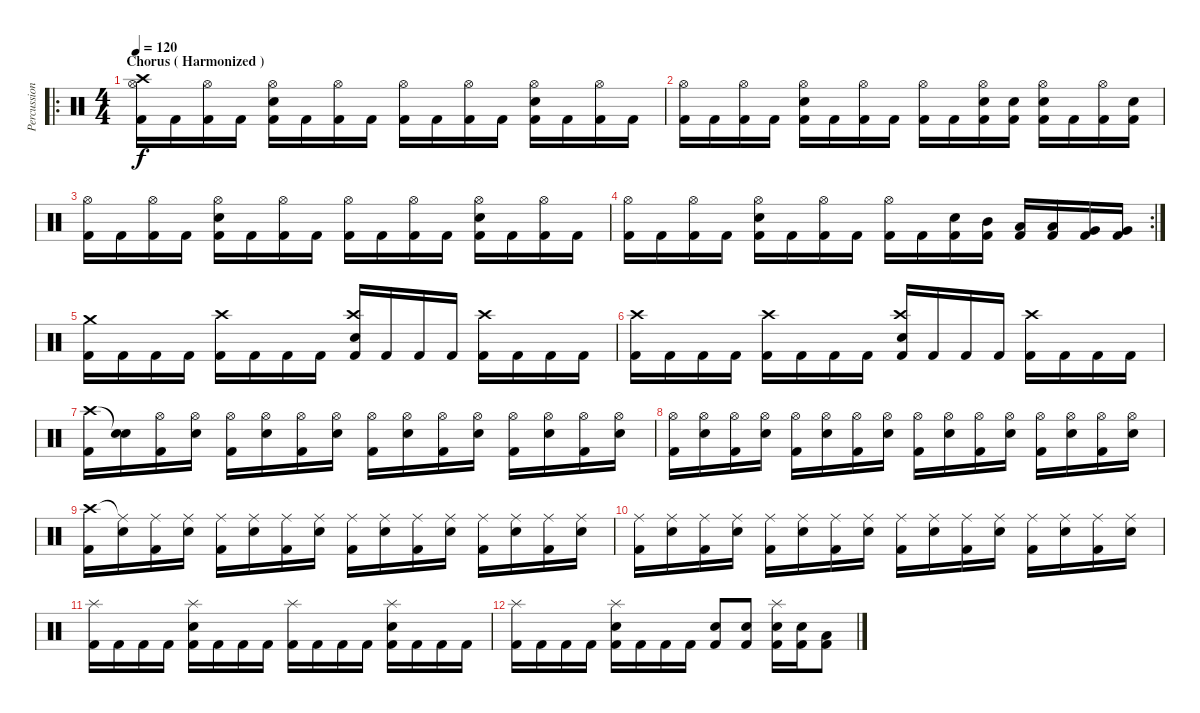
\track ("Percussions" "Percussion") {instrument percussion}
\staff {score}
\articulation defaults
\ro
\ts (4 4)
\section ("" "Chorus ( Harmonized )")
\tempo 120
\clef neutral
\ks c
("Kick (hit) 2" "Hi-Hat (open)" "Crash high (hit)").16{dy f} "Kick (hit) 2".16 ("Kick (hit) 2" "Hi-Hat (open)").16 "Kick (hit) 2".16 ("Kick (hit) 2" "Electric Snare (hit)" "Hi-Hat (open)").16 "Kick (hit) 2".16 ("Kick (hit) 2" "Hi-Hat (open)").16 "Kick (hit) 2".16 ("Kick (hit) 2" "Hi-Hat (open)").16 "Kick (hit) 2".16 ("Kick (hit) 2" "Hi-Hat (open)").16 "Kick (hit) 2".16 ("Kick (hit) 2" "Electric Snare (hit)" "Hi-Hat (open)").16 "Kick (hit) 2".16 ("Kick (hit) 2" "Hi-Hat (open)").16 "Kick (hit) 2".16 |
("Kick (hit) 2" "Hi-Hat (open)").16 "Kick (hit) 2".16 ("Kick (hit) 2" "Hi-Hat (open)").16 "Kick (hit) 2".16 ("Kick (hit) 2" "Electric Snare (hit)" "Hi-Hat (open)").16 "Kick (hit) 2".16 ("Kick (hit) 2" "Hi-Hat (open)").16 "Kick (hit) 2".16 ("Kick (hit) 2" "Hi-Hat (open)").16 "Kick (hit) 2".16 ("Kick (hit) 2" "Electric Snare (hit)" "Hi-Hat (open)").16 ("Kick (hit) 2" "Electric Snare (hit)").16 ("Kick (hit) 2" "Electric Snare (hit)" "Hi-Hat (open)").16 "Kick (hit) 2".16 ("Kick (hit) 2" "Hi-Hat (open)").16 ("Kick (hit) 2" "Electric Snare (hit)").16 |
("Kick (hit) 2" "Hi-Hat (open)").16 "Kick (hit) 2".16 ("Kick (hit) 2" "Hi-Hat (open)").16 "Kick (hit) 2".16 ("Kick (hit) 2" "Electric Snare (hit)" "Hi-Hat (open)").16 "Kick (hit) 2".16 ("Kick (hit) 2" "Hi-Hat (open)").16 "Kick (hit) 2".16 ("Kick (hit) 2" "Hi-Hat (open)").16 "Kick (hit) 2".16 ("Kick (hit) 2" "Hi-Hat (open)").16 "Kick (hit) 2".16 ("Kick (hit) 2" "Electric Snare (hit)" "Hi-Hat (open)").16 "Kick (hit) 2".16 ("Kick (hit) 2" "Hi-Hat (open)").16 "Kick (hit) 2".16 |
\rc 2
("Kick (hit) 2" "Hi-Hat (open)").16 "Kick (hit) 2".16 ("Kick (hit) 2" "Hi-Hat (open)").16 "Kick (hit) 2".16 ("Kick (hit) 2" "Electric Snare (hit)" "Hi-Hat (open)").16 "Kick (hit) 2".16 ("Kick (hit) 2" "Hi-Hat (open)").16 "Kick (hit) 2".16 ("Kick (hit) 2" "Hi-Hat (open)").16 "Kick (hit) 2".16 ("Kick (hit) 2" "Electric Snare (hit)").16 ("Kick (hit) 2" "Mid Tom (hit)").16 ("Kick (hit) 2" "Low Tom (hit)").16 ("Kick (hit) 2" "Low Tom (hit)").16 ("Kick (hit) 2" "Very Low Tom (hit)").16 ("Kick (hit) 2" "Very Low Tom (hit)").16 |
("Crash medium (hit)" "Kick (hit) 2").16{volume 8} "Kick (hit) 2".16 "Kick (hit) 2".16 "Kick (hit) 2".16 ("Crash high (hit)" "Kick (hit) 2").16 "Kick (hit) 2".16 "Kick (hit) 2".16 "Kick (hit) 2".16 ("Crash high (hit)" "Electric Snare (hit)" "Kick (hit) 2").16 "Kick (hit) 2".16 "Kick (hit) 2".16 "Kick (hit) 2".16 ("Crash high (hit)" "Kick (hit) 2").16 "Kick (hit) 2".16 "Kick (hit) 2".16 "Kick (hit) 2".16 |
("Crash high (hit)" "Kick (hit) 2").16 "Kick (hit) 2".16 "Kick (hit) 2".16 "Kick (hit) 2".16 ("Crash high (hit)" "Kick (hit) 2").16 "Kick (hit) 2".16 "Kick (hit) 2".16 "Kick (hit) 2".16 ("Crash high (hit)" "Electric Snare (hit)" "Kick (hit) 2").16 "Kick (hit) 2".16 "Kick (hit) 2".16 "Kick (hit) 2".16 ("Crash high (hit)" "Kick (hit) 2").16 "Kick (hit) 2".16 "Kick (hit) 2".16 "Kick (hit) 2".16 |
("Crash high (hit)" "Kick (hit) 2").16 ("Snare (hit)"{t} "Snare (hit) 2").16 ("Hi-Hat (open)" "Kick (hit) 2").16 ("Hi-Hat (open)" "Snare (hit) 2").16 ("Hi-Hat (open)" "Kick (hit) 2").16 ("Hi-Hat (open)" "Snare (hit) 2").16 ("Hi-Hat (open)" "Kick (hit) 2").16 ("Hi-Hat (open)" "Snare (hit) 2").16 ("Hi-Hat (open)" "Kick (hit) 2").16 ("Hi-Hat (open)" "Snare (hit) 2").16 ("Hi-Hat (open)" "Kick (hit) 2").16 ("Hi-Hat (open)" "Snare (hit) 2").16 ("Hi-Hat (open)" "Kick (hit) 2").16 ("Hi-Hat (open)" "Snare (hit) 2").16 ("Hi-Hat (open)" "Kick (hit) 2").16 ("Hi-Hat (open)" "Snare (hit) 2").16 |
("Hi-Hat (open)" "Kick (hit) 2").16 ("Hi-Hat (open)" "Snare (hit) 2").16 ("Hi-Hat (open)" "Kick (hit) 2").16 ("Hi-Hat (open)" "Snare (hit) 2").16 ("Hi-Hat (open)" "Kick (hit) 2").16 ("Hi-Hat (open)" "Snare (hit) 2").16 ("Hi-Hat (open)" "Kick (hit) 2").16 ("Hi-Hat (open)" "Snare (hit) 2").16 ("Hi-Hat (open)" "Kick (hit) 2").16 ("Hi-Hat (open)" "Snare (hit) 2").16 ("Hi-Hat (open)" "Kick (hit) 2").16 ("Hi-Hat (open)" "Snare (hit) 2").16 ("Hi-Hat (open)" "Kick (hit) 2").16 ("Hi-Hat (open)" "Snare (hit) 2").16 ("Hi-Hat (open)" "Kick (hit) 2").16 ("Hi-Hat (open)" "Snare (hit) 2").16 |
("Crash high (hit)" "Kick (hit) 2").16{volume 0} ("Ride (middle)"{t} "Snare (hit) 2").16 ("Ride (middle)" "Kick (hit) 2").16 ("Ride (middle)" "Snare (hit) 2").16 ("Ride (middle)" "Kick (hit) 2").16 ("Ride (middle)" "Snare (hit) 2").16 ("Ride (middle)" "Kick (hit) 2").16 ("Ride (middle)" "Snare (hit) 2").16 ("Ride (middle)" "Kick (hit) 2").16 ("Ride (middle)" "Snare (hit) 2").16 ("Ride (middle)" "Kick (hit) 2").16 ("Ride (middle)" "Snare (hit) 2").16 ("Ride (middle)" "Kick (hit) 2").16 ("Ride (middle)" "Snare (hit) 2").16 ("Ride (middle)" "Kick (hit) 2").16 ("Ride (middle)" "Snare (hit) 2").16 |
("Ride (middle)" "Kick (hit) 2").16 ("Ride (middle)" "Snare (hit) 2").16 ("Ride (middle)" "Kick (hit) 2").16 ("Ride (middle)" "Snare (hit) 2").16 ("Ride (middle)" "Kick (hit) 2").16 ("Ride (middle)" "Snare (hit) 2").16 ("Ride (middle)" "Kick (hit) 2").16 ("Ride (middle)" "Snare (hit) 2").16 ("Ride (middle)" "Kick (hit) 2").16 ("Ride (middle)" "Snare (hit) 2").16 ("Ride (middle)" "Kick (hit) 2").16 ("Ride (middle)" "Snare (hit) 2").16 ("Ride (middle)" "Kick (hit) 2").16 ("Ride (middle)" "Snare (hit) 2").16 ("Ride (middle)" "Kick (hit) 2").16 ("Ride (middle)" "Snare (hit) 2").16 |
("Splash (hit)" "Kick (hit) 2").16 "Kick (hit) 2".16 "Kick (hit) 2".16 "Kick (hit) 2".16 ("Splash (hit)" "Snare (hit) 2" "Kick (hit) 2").16 "Kick (hit) 2".16 "Kick (hit) 2".16 "Kick (hit) 2".16 ("Splash (hit)" "Kick (hit) 2").16 "Kick (hit) 2".16 "Kick (hit) 2".16 "Kick (hit) 2".16 ("Splash (hit)" "Snare (hit) 2" "Kick (hit) 2").16 "Kick (hit) 2".16 "Kick (hit) 2".16 "Kick (hit) 2".16 |
("Splash (hit)" "Kick (hit) 2").16 "Kick (hit) 2".16 "Kick (hit) 2".16 "Kick (hit) 2".16 ("Splash (hit)" "Snare (hit) 2" "Kick (hit) 2").16 "Kick (hit) 2".16 "Kick (hit) 2".16 "Kick (hit) 2".16 ("Snare (hit) 2" "Kick (hit) 2").8 ("Snare (hit) 2" "Kick (hit) 2").8 ("Splash (hit)" "Snare (hit) 2" "Kick (hit) 2").16 ("Snare (hit) 2" "Kick (hit) 2").16 ("Low Floor Tom (hit)" "Kick (hit) 2").8
